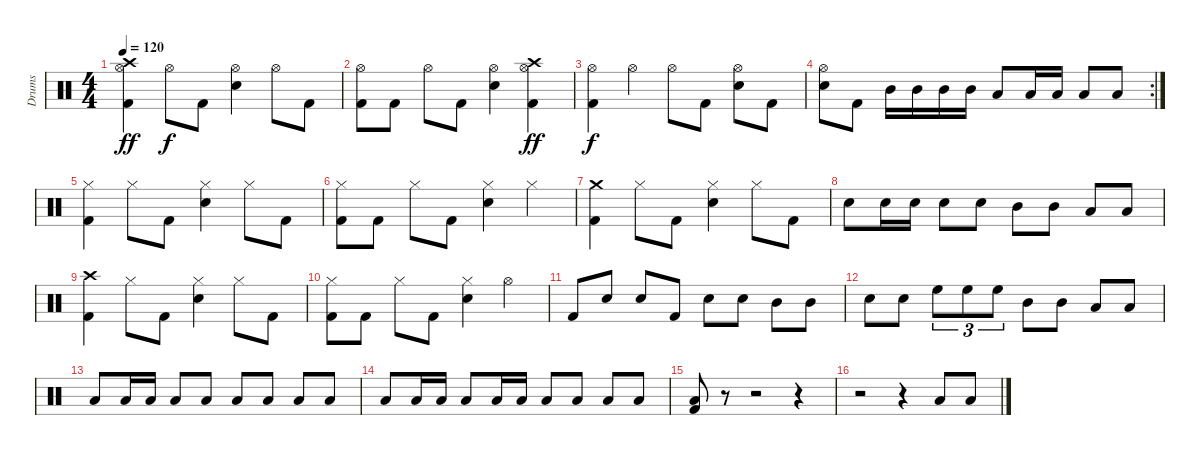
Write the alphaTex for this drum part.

\track ("Drums" "Drums") {instrument percussion}
\staff {score}
\articulation defaults
\ts (4 4)
\tempo 120
\clef neutral
\ks c
("Hi-Hat (open)" "Crash high (hit)" "Kick (hit) 2").4{dy ff} "Hi-Hat (open)".8{dy f} "Kick (hit) 2".8 ("Hi-Hat (open)" "Snare (hit) 2").4 "Hi-Hat (open)".8 "Kick (hit) 2".8 |
("Hi-Hat (open)" "Kick (hit) 2").8 "Kick (hit) 2".8 "Hi-Hat (open)".8 "Kick (hit) 2".8 ("Hi-Hat (open)" "Snare (hit) 2").4 ("Hi-Hat (open)" "Crash high (hit)" "Kick (hit) 2").4{dy ff} |
("Hi-Hat (open)" "Kick (hit) 2").4{dy f} "Hi-Hat (open)".4 "Hi-Hat (open)".8 "Kick (hit) 2".8 ("Hi-Hat (open)" "Snare (hit) 2").8 "Kick (hit) 2".8 |
\rc 2
("Hi-Hat (open)" "Snare (hit) 2").8 "Kick (hit) 2".8 "Mid Tom (hit)".16 "Mid Tom (hit)".16 "Mid Tom (hit)".16 "Mid Tom (hit)".16 "Low Tom (hit)".8 "Low Tom (hit)".16 "Low Tom (hit)".16 "Low Floor Tom (hit)".8 "Low Floor Tom (hit)".8 |
("Hi-Hat (closed)" "Kick (hit) 2").4 "Hi-Hat (closed)".8 "Kick (hit) 2".8 ("Hi-Hat (closed)" "Snare (hit) 2").4 "Hi-Hat (closed)".8 "Kick (hit) 2".8 |
("Hi-Hat (closed)" "Kick (hit) 2").8 "Kick (hit) 2".8 "Hi-Hat (closed)".8 "Kick (hit) 2".8 ("Hi-Hat (closed)" "Snare (hit) 2").4 "Hi-Hat (closed)".4 |
("Crash medium (hit)" "Kick (hit) 2").4 "Hi-Hat (closed)".8 "Kick (hit) 2".8 ("Hi-Hat (closed)" "Snare (hit) 2").4 "Hi-Hat (closed)".8 "Kick (hit) 2".8 |
"Snare (hit) 2".8 "Snare (hit) 2".16 "Snare (hit) 2".16 "Snare (hit) 2".8 "Snare (hit) 2".8 "Mid Tom (hit)".8 "Mid Tom (hit)".8 "Low Tom (hit)".8 "Low Tom (hit)".8 |
("Crash high (hit)" "Kick (hit) 2").4 "Hi-Hat (closed)".8 "Kick (hit) 2".8 ("Hi-Hat (closed)" "Snare (hit) 2").4 "Hi-Hat (closed)".8 "Kick (hit) 2".8 |
("Hi-Hat (closed)" "Kick (hit) 2").8 "Kick (hit) 2".8 "Hi-Hat (closed)".8 "Kick (hit) 2".8 ("Hi-Hat (closed)" "Snare (hit) 2").4 "Hi-Hat (open)".4 |
"Kick (hit) 2".8 "Snare (hit) 2".8 "Snare (hit) 2".8 "Kick (hit) 2".8 "Snare (hit) 2".8 "Snare (hit) 2".8 "Mid Tom (hit)".8 "Mid Tom (hit)".8 |
"Snare (hit) 2".8 "Snare (hit) 2".8 "High Floor Tom (hit)".8{tu (3 2)} "High Floor Tom (hit)".8{tu (3 2)} "High Floor Tom (hit)".8{tu (3 2)} "Mid Tom (hit)".8 "Mid Tom (hit)".8 "Low Tom (hit)".8 "Low Tom (hit)".8 |
"Low Tom (hit)".8 "Low Tom (hit)".16 "Low Tom (hit)".16 "Low Tom (hit)".8 "Low Floor Tom (hit)".8 "Low Floor Tom (hit)".8 "Low Floor Tom (hit)".8 "Low Floor Tom (hit)".8 "Low Floor Tom (hit)".8 |
"Low Floor Tom (hit)".8 "Low Floor Tom (hit)".16 "Low Floor Tom (hit)".16 "Low Floor Tom (hit)".8 "Low Floor Tom (hit)".16 "Low Floor Tom (hit)".16 "Low Floor Tom (hit)".8 "Low Floor Tom (hit)".8 "Low Floor Tom (hit)".8 "Low Floor Tom (hit)".8 |
("Low Floor Tom (hit)" "Kick (hit) 2").8 r.8 r.2 r.4 |
r.2 r.4 "Low Tom (hit)".8 "Low Tom (hit)".8
